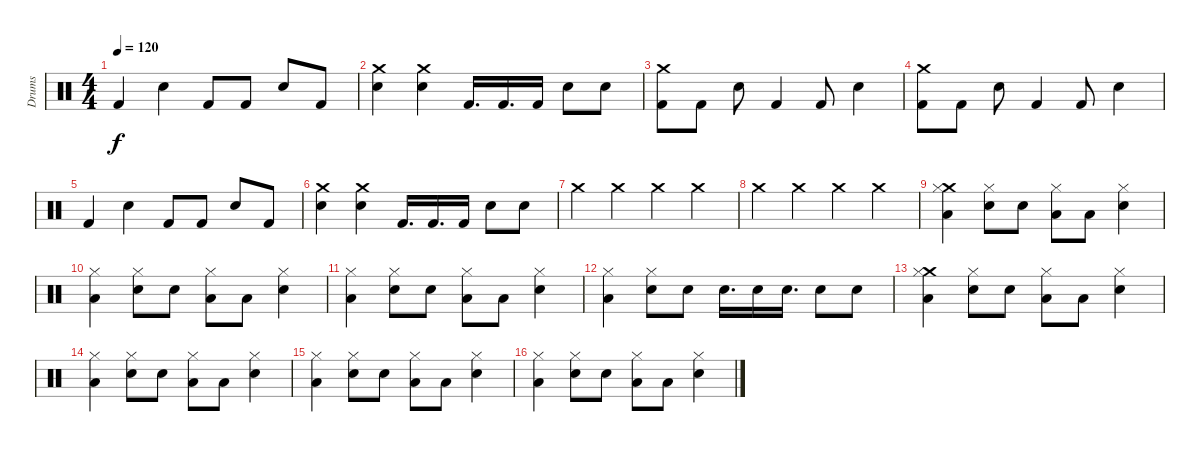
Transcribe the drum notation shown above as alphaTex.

\track ("Drums" "Drums") {instrument percussion}
\staff {score}
\articulation defaults
\ts (4 4)
\tempo 120
\clef neutral
\ks c "Kick (hit) 2".4{dy f} "Electric Snare (hit)".4 "Kick (hit) 2".8 "Kick (hit) 2".8 "Electric Snare (hit)".8 "Kick (hit) 2".8
|
("Crash medium (hit)" "Electric Snare (hit)").4 ("Crash medium (hit)" "Electric Snare (hit)").4 "Kick (hit) 2".16{d} "Kick (hit) 2".16{d} "Kick (hit) 2".16 "Electric Snare (hit)".8 "Electric Snare (hit)".8 |
("Crash medium (hit)" "Kick (hit) 2").8 "Kick (hit) 2".8 "Electric Snare (hit)".8 "Kick (hit) 2".4 "Kick (hit) 2".8 "Electric Snare (hit)".4 |
("Crash medium (hit)" "Kick (hit) 2").8 "Kick (hit) 2".8 "Electric Snare (hit)".8 "Kick (hit) 2".4 "Kick (hit) 2".8 "Electric Snare (hit)".4 |
"Kick (hit) 2".4 "Electric Snare (hit)".4 "Kick (hit) 2".8 "Kick (hit) 2".8 "Electric Snare (hit)".8 "Kick (hit) 2".8 |
("Crash medium (hit)" "Electric Snare (hit)").4 ("Crash medium (hit)" "Electric Snare (hit)").4 "Kick (hit) 2".16{d} "Kick (hit) 2".16{d} "Kick (hit) 2".16 "Electric Snare (hit)".8 "Electric Snare (hit)".8 |
"Crash medium (hit)".4 "Crash medium (hit)".4 "Crash medium (hit)".4 "Crash medium (hit)".4 |
"Crash medium (hit)".4 "Crash medium (hit)".4 "Crash medium (hit)".4 "Crash medium (hit)".4 |
("Crash medium (hit)" "Hi-Hat (closed)" "Low Floor Tom (hit)").4 ("Hi-Hat (closed)" "Electric Snare (hit)").8 "Electric Snare (hit)".8 ("Hi-Hat (closed)" "Low Floor Tom (hit)").8 "Low Floor Tom (hit)".8 ("Hi-Hat (closed)" "Electric Snare (hit)").4 |
("Hi-Hat (closed)" "Low Floor Tom (hit)").4 ("Hi-Hat (closed)" "Electric Snare (hit)").8 "Electric Snare (hit)".8 ("Hi-Hat (closed)" "Low Floor Tom (hit)").8 "Low Floor Tom (hit)".8 ("Hi-Hat (closed)" "Electric Snare (hit)").4 |
("Hi-Hat (closed)" "Low Floor Tom (hit)").4 ("Hi-Hat (closed)" "Electric Snare (hit)").8 "Electric Snare (hit)".8 ("Hi-Hat (closed)" "Low Floor Tom (hit)").8 "Low Floor Tom (hit)".8 ("Hi-Hat (closed)" "Electric Snare (hit)").4 |
("Hi-Hat (closed)" "Low Floor Tom (hit)").4 ("Hi-Hat (closed)" "Electric Snare (hit)").8 "Electric Snare (hit)".8 "Electric Snare (hit)".16{d} "Electric Snare (hit)".16 "Electric Snare (hit)".16{d} "Electric Snare (hit)".8 "Electric Snare (hit)".8 |
("Crash medium (hit)" "Hi-Hat (closed)" "Low Floor Tom (hit)").4 ("Hi-Hat (closed)" "Electric Snare (hit)").8 "Electric Snare (hit)".8 ("Hi-Hat (closed)" "Low Floor Tom (hit)").8 "Low Floor Tom (hit)".8 ("Hi-Hat (closed)" "Electric Snare (hit)").4 |
("Hi-Hat (closed)" "Low Floor Tom (hit)").4 ("Hi-Hat (closed)" "Electric Snare (hit)").8 "Electric Snare (hit)".8 ("Hi-Hat (closed)" "Low Floor Tom (hit)").8 "Low Floor Tom (hit)".8 ("Hi-Hat (closed)" "Electric Snare (hit)").4 |
("Hi-Hat (closed)" "Low Floor Tom (hit)").4 ("Hi-Hat (closed)" "Electric Snare (hit)").8 "Electric Snare (hit)".8 ("Hi-Hat (closed)" "Low Floor Tom (hit)").8 "Low Floor Tom (hit)".8 ("Hi-Hat (closed)" "Electric Snare (hit)").4 |
("Hi-Hat (closed)" "Low Floor Tom (hit)").4 ("Hi-Hat (closed)" "Electric Snare (hit)").8 "Electric Snare (hit)".8 ("Hi-Hat (closed)" "Low Floor Tom (hit)").8 "Low Floor Tom (hit)".8 ("Hi-Hat (closed)" "Electric Snare (hit)").4
